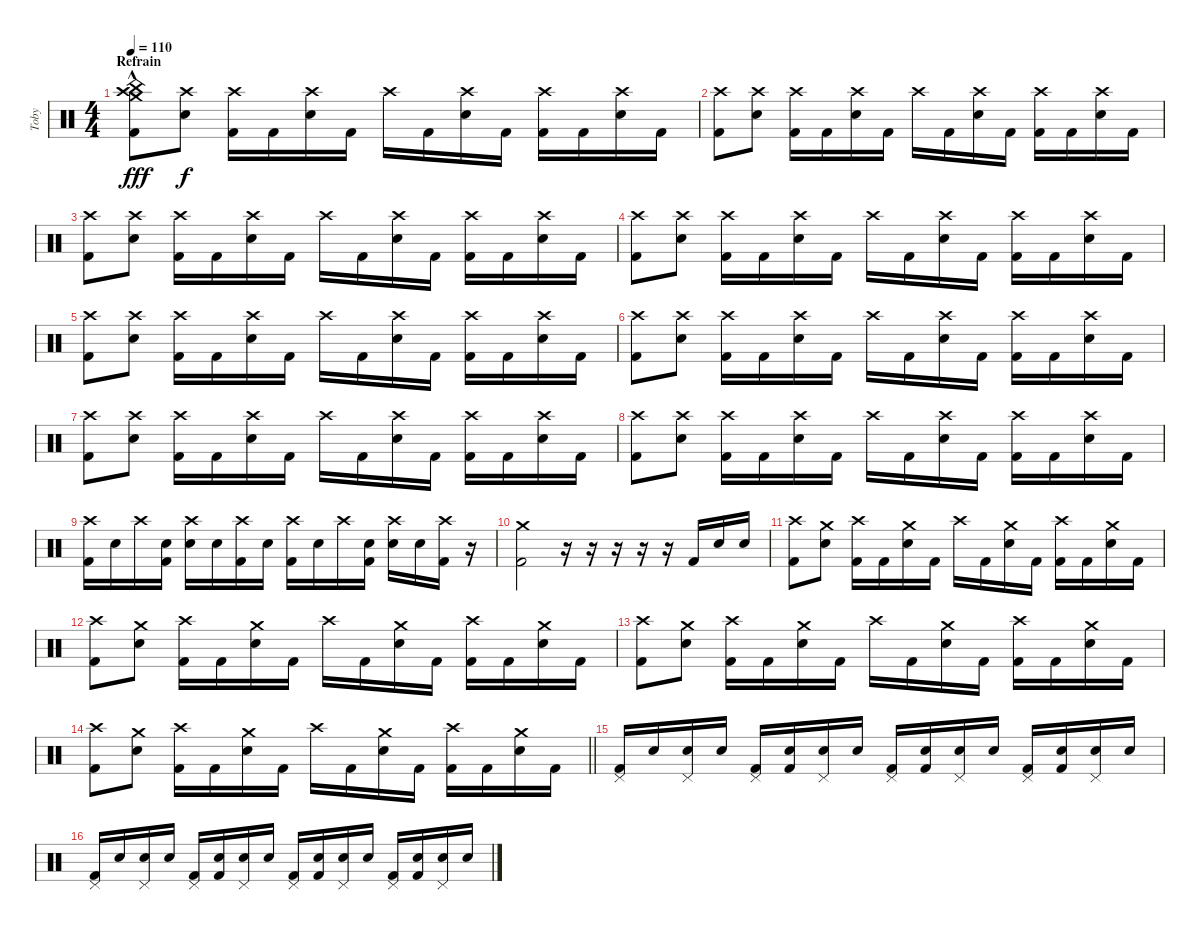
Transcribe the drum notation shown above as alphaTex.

\track ("Toby" "Toby") {instrument percussion}
\staff {score}
\articulation defaults
\ts (4 4)
\section ("" "Refrain")
\tempo 110
\clef neutral
\ks c
("China (hit)"{hac} "Crash high (hit)" "Crash medium (hit)" "Kick (hit) 2").8{dy fff} ("Crash high (hit)" "Electric Snare (hit)").8{dy f} ("Crash high (hit)" "Kick (hit) 2").16 "Kick (hit) 2".16 ("Crash high (hit)" "Electric Snare (hit)").16 "Kick (hit) 2".16 "Crash high (hit)".16 "Kick (hit) 2".16 ("Crash high (hit)" "Electric Snare (hit)").16 "Kick (hit) 2".16 ("Crash high (hit)" "Kick (hit) 2").16 "Kick (hit) 2".16 ("Crash high (hit)" "Electric Snare (hit)").16 "Kick (hit) 2".16 |
("Crash high (hit)" "Kick (hit) 2").8 ("Crash high (hit)" "Electric Snare (hit)").8 ("Crash high (hit)" "Kick (hit) 2").16 "Kick (hit) 2".16 ("Crash high (hit)" "Electric Snare (hit)").16 "Kick (hit) 2".16 "Crash high (hit)".16 "Kick (hit) 2".16 ("Crash high (hit)" "Electric Snare (hit)").16 "Kick (hit) 2".16 ("Crash high (hit)" "Kick (hit) 2").16 "Kick (hit) 2".16 ("Crash high (hit)" "Electric Snare (hit)").16 "Kick (hit) 2".16 |
("Crash high (hit)" "Kick (hit) 2").8 ("Crash high (hit)" "Electric Snare (hit)").8 ("Crash high (hit)" "Kick (hit) 2").16 "Kick (hit) 2".16 ("Crash high (hit)" "Electric Snare (hit)").16 "Kick (hit) 2".16 "Crash high (hit)".16 "Kick (hit) 2".16 ("Crash high (hit)" "Electric Snare (hit)").16 "Kick (hit) 2".16 ("Crash high (hit)" "Kick (hit) 2").16 "Kick (hit) 2".16 ("Crash high (hit)" "Electric Snare (hit)").16 "Kick (hit) 2".16 |
("Crash high (hit)" "Kick (hit) 2").8 ("Crash high (hit)" "Electric Snare (hit)").8 ("Crash high (hit)" "Kick (hit) 2").16 "Kick (hit) 2".16 ("Crash high (hit)" "Electric Snare (hit)").16 "Kick (hit) 2".16 "Crash high (hit)".16 "Kick (hit) 2".16 ("Crash high (hit)" "Electric Snare (hit)").16 "Kick (hit) 2".16 ("Crash high (hit)" "Kick (hit) 2").16 "Kick (hit) 2".16 ("Crash high (hit)" "Electric Snare (hit)").16 "Kick (hit) 2".16 |
("Crash high (hit)" "Kick (hit) 2").8 ("Crash high (hit)" "Electric Snare (hit)").8 ("Crash high (hit)" "Kick (hit) 2").16 "Kick (hit) 2".16 ("Crash high (hit)" "Electric Snare (hit)").16 "Kick (hit) 2".16 "Crash high (hit)".16 "Kick (hit) 2".16 ("Crash high (hit)" "Electric Snare (hit)").16 "Kick (hit) 2".16 ("Crash high (hit)" "Kick (hit) 2").16 "Kick (hit) 2".16 ("Crash high (hit)" "Electric Snare (hit)").16 "Kick (hit) 2".16 |
("Crash high (hit)" "Kick (hit) 2").8 ("Crash high (hit)" "Electric Snare (hit)").8 ("Crash high (hit)" "Kick (hit) 2").16 "Kick (hit) 2".16 ("Crash high (hit)" "Electric Snare (hit)").16 "Kick (hit) 2".16 "Crash high (hit)".16 "Kick (hit) 2".16 ("Crash high (hit)" "Electric Snare (hit)").16 "Kick (hit) 2".16 ("Crash high (hit)" "Kick (hit) 2").16 "Kick (hit) 2".16 ("Crash high (hit)" "Electric Snare (hit)").16 "Kick (hit) 2".16 |
("Crash high (hit)" "Kick (hit) 2").8 ("Crash high (hit)" "Electric Snare (hit)").8 ("Crash high (hit)" "Kick (hit) 2").16 "Kick (hit) 2".16 ("Crash high (hit)" "Electric Snare (hit)").16 "Kick (hit) 2".16 "Crash high (hit)".16 "Kick (hit) 2".16 ("Crash high (hit)" "Electric Snare (hit)").16 "Kick (hit) 2".16 ("Crash high (hit)" "Kick (hit) 2").16 "Kick (hit) 2".16 ("Crash high (hit)" "Electric Snare (hit)").16 "Kick (hit) 2".16 |
("Crash high (hit)" "Kick (hit) 2").8 ("Crash high (hit)" "Electric Snare (hit)").8 ("Crash high (hit)" "Kick (hit) 2").16 "Kick (hit) 2".16 ("Crash high (hit)" "Electric Snare (hit)").16 "Kick (hit) 2".16 "Crash high (hit)".16 "Kick (hit) 2".16 ("Crash high (hit)" "Electric Snare (hit)").16 "Kick (hit) 2".16 ("Crash high (hit)" "Kick (hit) 2").16 "Kick (hit) 2".16 ("Crash high (hit)" "Electric Snare (hit)").16 "Kick (hit) 2".16 |
("Crash high (hit)" "Kick (hit) 2").16 "Snare (hit)".16 "Crash high (hit)".16 ("Snare (hit)" "Kick (hit) 2").16 ("Crash high (hit)" "Electric Snare (hit)").16 "Snare (hit)".16 ("Crash high (hit)" "Kick (hit) 2").16 "Snare (hit)".16 ("Crash high (hit)" "Kick (hit) 2").16 "Snare (hit)".16 "Crash high (hit)".16 ("Snare (hit)" "Kick (hit) 2").16 ("Crash high (hit)" "Electric Snare (hit)").16 "Snare (hit)".16 ("Crash high (hit)" "Kick (hit) 2").16 r.16 |
("Crash medium (hit)" "Kick (hit) 2").2 r.16 r.16 r.16 r.16 r.16 "Kick (hit) 2".16 "Electric Snare (hit)".16 "Electric Snare (hit)".16 |
("Crash high (hit)" "Kick (hit) 2").8 ("Crash medium (hit)" "Electric Snare (hit)").8 ("Crash high (hit)" "Kick (hit) 2").16 "Kick (hit) 2".16 ("Crash medium (hit)" "Electric Snare (hit)").16 "Kick (hit) 2".16 "Crash high (hit)".16 "Kick (hit) 2".16 ("Crash medium (hit)" "Electric Snare (hit)").16 "Kick (hit) 2".16 ("Crash high (hit)" "Kick (hit) 2").16 "Kick (hit) 2".16 ("Crash medium (hit)" "Electric Snare (hit)").16 "Kick (hit) 2".16 |
("Crash high (hit)" "Kick (hit) 2").8 ("Crash medium (hit)" "Electric Snare (hit)").8 ("Crash high (hit)" "Kick (hit) 2").16 "Kick (hit) 2".16 ("Crash medium (hit)" "Electric Snare (hit)").16 "Kick (hit) 2".16 "Crash high (hit)".16 "Kick (hit) 2".16 ("Crash medium (hit)" "Electric Snare (hit)").16 "Kick (hit) 2".16 ("Crash high (hit)" "Kick (hit) 2").16 "Kick (hit) 2".16 ("Crash medium (hit)" "Electric Snare (hit)").16 "Kick (hit) 2".16 |
("Crash high (hit)" "Kick (hit) 2").8 ("Crash medium (hit)" "Electric Snare (hit)").8 ("Crash high (hit)" "Kick (hit) 2").16 "Kick (hit) 2".16 ("Crash medium (hit)" "Electric Snare (hit)").16 "Kick (hit) 2".16 "Crash high (hit)".16 "Kick (hit) 2".16 ("Crash medium (hit)" "Electric Snare (hit)").16 "Kick (hit) 2".16 ("Crash high (hit)" "Kick (hit) 2").16 "Kick (hit) 2".16 ("Crash medium (hit)" "Electric Snare (hit)").16 "Kick (hit) 2".16 |
\barLineRight lightlight
("Crash high (hit)" "Kick (hit) 2").8 ("Crash medium (hit)" "Electric Snare (hit)").8 ("Crash high (hit)" "Kick (hit) 2").16 "Kick (hit) 2".16 ("Crash medium (hit)" "Electric Snare (hit)").16 "Kick (hit) 2".16 "Crash high (hit)".16 "Kick (hit) 2".16 ("Crash medium (hit)" "Electric Snare (hit)").16 "Kick (hit) 2".16 ("Crash high (hit)" "Kick (hit) 2").16 "Kick (hit) 2".16 ("Crash medium (hit)" "Electric Snare (hit)").16 "Kick (hit) 2".16 |
("Pedal Hi-Hat (hit)" "Kick (hit) 2").16 "Snare (hit)".16 ("Pedal Hi-Hat (hit)" "Electric Snare (hit)").16 "Snare (hit)".16 ("Pedal Hi-Hat (hit)" "Kick (hit) 2").16 ("Snare (hit)" "Kick (hit) 2").16 ("Pedal Hi-Hat (hit)" "Electric Snare (hit)").16 "Snare (hit)".16 ("Pedal Hi-Hat (hit)" "Kick (hit) 2").16 ("Snare (hit)" "Kick (hit) 2").16 ("Pedal Hi-Hat (hit)" "Electric Snare (hit)").16 "Snare (hit)".16 ("Pedal Hi-Hat (hit)" "Kick (hit) 2").16 ("Snare (hit)" "Kick (hit) 2").16 ("Pedal Hi-Hat (hit)" "Electric Snare (hit)").16 "Snare (hit)".16 |
("Pedal Hi-Hat (hit)" "Kick (hit) 2").16 "Snare (hit)".16 ("Pedal Hi-Hat (hit)" "Electric Snare (hit)").16 "Snare (hit)".16 ("Pedal Hi-Hat (hit)" "Kick (hit) 2").16 ("Snare (hit)" "Kick (hit) 2").16 ("Pedal Hi-Hat (hit)" "Electric Snare (hit)").16 "Snare (hit)".16 ("Pedal Hi-Hat (hit)" "Kick (hit) 2").16 ("Snare (hit)" "Kick (hit) 2").16 ("Pedal Hi-Hat (hit)" "Electric Snare (hit)").16 "Snare (hit)".16 ("Pedal Hi-Hat (hit)" "Kick (hit) 2").16 ("Snare (hit)" "Kick (hit) 2").16 ("Pedal Hi-Hat (hit)" "Electric Snare (hit)").16 "Snare (hit)".16
